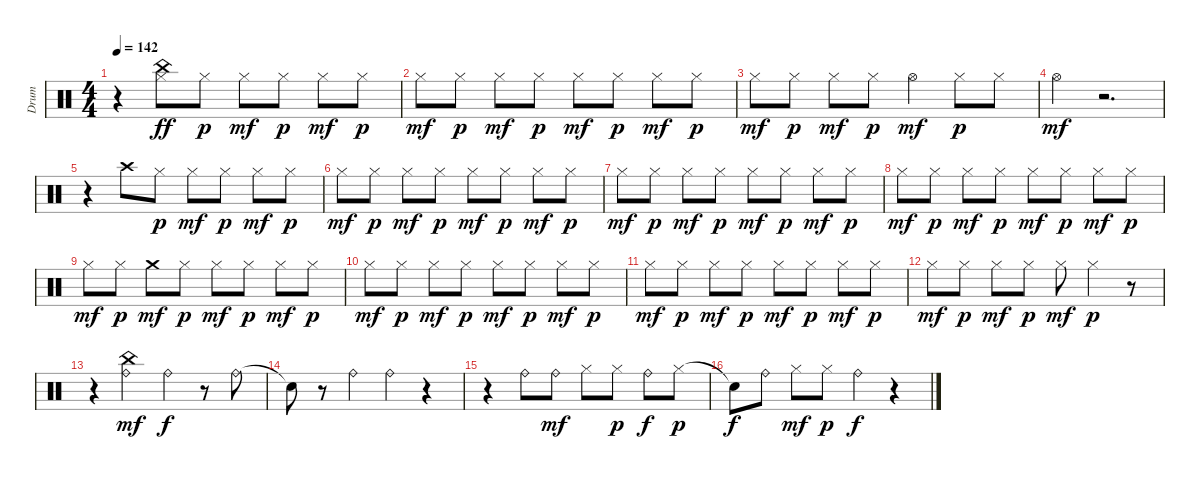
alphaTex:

\track ("Drum" "Drum") {instrument percussion}
\staff {score}
\articulation defaults
\ts (4 4)
\tempo 142
\clef neutral
\ks c
r.4{dy ff} ("Hi-Hat (closed)" "China (hit)").8 "Hi-Hat (closed)".8{dy p} "Hi-Hat (closed)".8{dy mf} "Hi-Hat (closed)".8{dy p} "Hi-Hat (closed)".8{dy mf} "Hi-Hat (closed)".8{dy p} |
"Hi-Hat (closed)".8{dy mf} "Hi-Hat (closed)".8{dy p} "Hi-Hat (closed)".8{dy mf} "Hi-Hat (closed)".8{dy p} "Hi-Hat (closed)".8{dy mf} "Hi-Hat (closed)".8{dy p} "Hi-Hat (closed)".8{dy mf} "Hi-Hat (closed)".8{dy p} |
"Hi-Hat (closed)".8{dy mf} "Hi-Hat (closed)".8{dy p} "Hi-Hat (closed)".8{dy mf} "Hi-Hat (closed)".8{dy p} "Hi-Hat (open)".4{dy mf} "Hi-Hat (closed)".8{dy p} "Hi-Hat (closed)".8 |
"Hi-Hat (open)".4{dy mf} r.2{d} |
r.4 "Crash high (hit)".8 "Hi-Hat (closed)".8{dy p} "Hi-Hat (closed)".8{dy mf} "Hi-Hat (closed)".8{dy p} "Hi-Hat (closed)".8{dy mf} "Hi-Hat (closed)".8{dy p} |
"Hi-Hat (closed)".8{dy mf} "Hi-Hat (closed)".8{dy p} "Hi-Hat (closed)".8{dy mf} "Hi-Hat (closed)".8{dy p} "Hi-Hat (closed)".8{dy mf} "Hi-Hat (closed)".8{dy p} "Hi-Hat (closed)".8{dy mf} "Hi-Hat (closed)".8{dy p} |
"Hi-Hat (closed)".8{dy mf} "Hi-Hat (closed)".8{dy p} "Hi-Hat (closed)".8{dy mf} "Hi-Hat (closed)".8{dy p} "Hi-Hat (closed)".8{dy mf} "Hi-Hat (closed)".8{dy p} "Hi-Hat (closed)".8{dy mf} "Hi-Hat (closed)".8{dy p} |
"Hi-Hat (closed)".8{dy mf} "Hi-Hat (closed)".8{dy p} "Hi-Hat (closed)".8{dy mf} "Hi-Hat (closed)".8{dy p} "Hi-Hat (closed)".8{dy mf} "Hi-Hat (closed)".8{dy p} "Hi-Hat (closed)".8{dy mf} "Hi-Hat (closed)".8{dy p} |
"Hi-Hat (closed)".8{dy mf} "Hi-Hat (closed)".8{dy p} "Crash medium (hit)".8{dy mf} "Hi-Hat (closed)".8{dy p} "Hi-Hat (closed)".8{dy mf} "Hi-Hat (closed)".8{dy p} "Hi-Hat (closed)".8{dy mf} "Hi-Hat (closed)".8{dy p} |
"Hi-Hat (closed)".8{dy mf} "Hi-Hat (closed)".8{dy p} "Hi-Hat (closed)".8{dy mf} "Hi-Hat (closed)".8{dy p} "Hi-Hat (closed)".8{dy mf} "Hi-Hat (closed)".8{dy p} "Hi-Hat (closed)".8{dy mf} "Hi-Hat (closed)".8{dy p} |
"Hi-Hat (closed)".8{dy mf} "Hi-Hat (closed)".8{dy p} "Hi-Hat (closed)".8{dy mf} "Hi-Hat (closed)".8{dy p} "Hi-Hat (closed)".8{dy mf} "Hi-Hat (closed)".8{dy p} "Hi-Hat (closed)".8{dy mf} "Hi-Hat (closed)".8{dy p} |
"Hi-Hat (closed)".8{dy mf} "Hi-Hat (closed)".8{dy p} "Hi-Hat (closed)".8{dy mf} "Hi-Hat (closed)".8{dy p} "Hi-Hat (closed)".8{dy mf} "Hi-Hat (closed)".4{dy p} r.8 |
r.4 ("China (hit)" "Ride (bell)").4{dy mf} "Ride (bell)".4{dy f} r.8 "Ride (bell)".8 |
"Snare (hit)"{t}.8 r.8 "Ride (bell)".4 "Ride (bell)".4 r.4 |
r.4 "Ride (bell)".8 "Ride (bell)".8{dy mf} "Hi-Hat (closed)".8 "Hi-Hat (closed)".8{dy p} "Ride (bell)".8{dy f} "Hi-Hat (closed)".8{dy p} |
"Snare (hit)"{t}.8{dy f} "Ride (bell)".8 "Hi-Hat (closed)".8{dy mf} "Hi-Hat (closed)".8{dy p} "Ride (bell)".4{dy f} r.4
